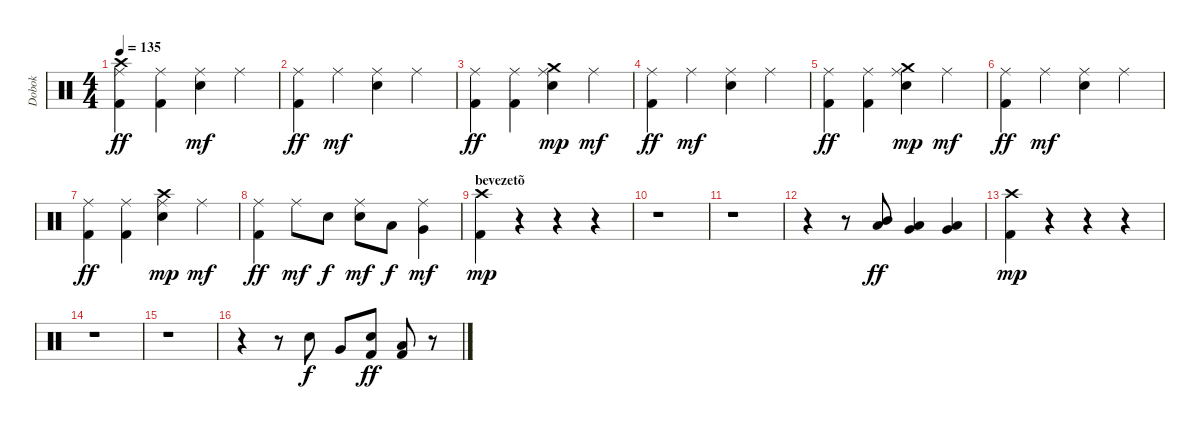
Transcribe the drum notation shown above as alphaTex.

\track ("Dobok" "Dobok") {instrument percussion}
\staff {score}
\articulation defaults
\ts (4 4)
\tempo 135
\clef neutral
\ks c
("Ride (middle)" "Crash high (hit)" "Kick (hit) 2").4{dy ff} ("Ride (middle)" "Kick (hit) 2").4 ("Ride (middle)" "Electric Snare (hit)").4{dy mf} "Ride (middle)".4 |
("Ride (middle)" "Kick (hit) 2").4{dy ff} "Ride (middle)".4{dy mf} ("Ride (middle)" "Electric Snare (hit)").4 "Ride (middle)".4 |
("Ride (middle)" "Kick (hit) 2").4{dy ff} ("Ride (middle)" "Kick (hit) 2").4 ("Ride (middle)" "Crash medium (hit)" "Electric Snare (hit)").4{dy mp} "Ride (middle)".4{dy mf} |
("Ride (middle)" "Kick (hit) 2").4{dy ff} "Ride (middle)".4{dy mf} ("Ride (middle)" "Electric Snare (hit)").4 "Ride (middle)".4 |
("Ride (middle)" "Kick (hit) 2").4{dy ff} ("Ride (middle)" "Kick (hit) 2").4 ("Ride (middle)" "Crash medium (hit)" "Electric Snare (hit)").4{dy mp} "Ride (middle)".4{dy mf} |
("Ride (middle)" "Kick (hit) 2").4{dy ff} "Ride (middle)".4{dy mf} ("Ride (middle)" "Electric Snare (hit)").4 "Ride (middle)".4 |
("Ride (middle)" "Kick (hit) 2").4{dy ff} ("Ride (middle)" "Kick (hit) 2").4 ("Ride (middle)" "Crash high (hit)" "Electric Snare (hit)").4{dy mp} "Ride (middle)".4{dy mf} |
("Ride (middle)" "Kick (hit) 2").4{dy ff} "Ride (middle)".8{dy mf} "Electric Snare (hit)".8{dy f} ("Ride (middle)" "Electric Snare (hit)").8{dy mf} "Low Tom (hit)".8{dy f} ("Ride (middle)" "Very Low Tom (hit)").4{dy mf} |
\section ("" "bevezetõ")
("Crash high (hit)" "Kick (hit) 2").4{dy mp} r.4 r.4 r.4 |
r.1 |
r.1 |
r.4 r.8 ("Low Tom (hit)" "Mid Tom (hit)").8{dy ff} ("Very Low Tom (hit)" "Low Tom (hit)").4 ("Low Floor Tom (hit)" "Very Low Tom (hit)").4 |
("Crash high (hit)" "Kick (hit) 2").4{dy mp} r.4 r.4 r.4 |
r.1 |
r.1 |
r.4 r.8 "Electric Snare (hit)".8{dy f} "Very Low Tom (hit)".8 ("Electric Snare (hit)" "Kick (hit) 2").8{dy ff} ("Low Floor Tom (hit)" "Kick (hit) 2").8 r.8
